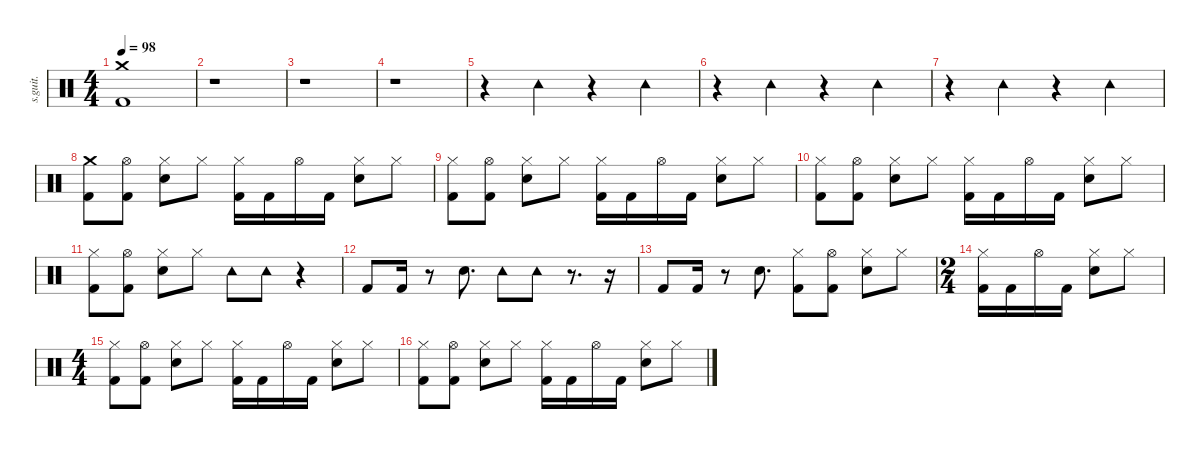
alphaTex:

\defaultSystemsLayout 4
\hideDynamics
\bracketExtendMode nobrackets
\track ("" "s.guit.") {instrument percussion}
\staff {score}
\articulation defaults
\ts (4 4)
\tempo 98
\clef neutral
\ks c
("Crash medium (hit)" "Kick (hit) 2").1{dy ff} |
r.1 |
r.1 |
r.1 |
r.4 "Tambourine (hit)".4 r.4 "Tambourine (hit)".4 |
r.4 "Tambourine (hit)".4 r.4 "Tambourine (hit)".4 |
r.4 "Tambourine (hit)".4 r.4 "Tambourine (hit)".4 |
("Crash medium (hit)" "Kick (hit) 2").8 ("Hi-Hat (open)" "Kick (hit) 2").8 ("Hi-Hat (closed)" "Snare (hit) 2").8 "Hi-Hat (closed)".8 ("Hi-Hat (closed)" "Kick (hit) 2").16 "Kick (hit) 2".16 "Hi-Hat (open)".16 "Kick (hit) 2".16 ("Hi-Hat (closed)" "Snare (hit) 2").8 "Hi-Hat (closed)".8 |
("Hi-Hat (closed)" "Kick (hit) 2").8 ("Hi-Hat (open)" "Kick (hit) 2").8 ("Hi-Hat (closed)" "Snare (hit) 2").8 "Hi-Hat (closed)".8 ("Hi-Hat (closed)" "Kick (hit) 2").16 "Kick (hit) 2".16 "Hi-Hat (open)".16 "Kick (hit) 2".16 ("Hi-Hat (closed)" "Snare (hit) 2").8 "Hi-Hat (closed)".8 |
("Hi-Hat (closed)" "Kick (hit) 2").8 ("Hi-Hat (open)" "Kick (hit) 2").8 ("Hi-Hat (closed)" "Snare (hit) 2").8 "Hi-Hat (closed)".8 ("Hi-Hat (closed)" "Kick (hit) 2").16 "Kick (hit) 2".16 "Hi-Hat (open)".16 "Kick (hit) 2".16 ("Hi-Hat (closed)" "Snare (hit) 2").8 "Hi-Hat (closed)".8 |
("Hi-Hat (closed)" "Kick (hit) 2").8 ("Hi-Hat (open)" "Kick (hit) 2").8 ("Hi-Hat (closed)" "Snare (hit) 2").8 "Hi-Hat (closed)".8 "Tambourine (hit)".8 "Tambourine (hit)".8 r.4 |
"Kick (hit) 2".8 "Kick (hit) 2".16 r.8 "Snare (hit) 2".8{d} "Tambourine (hit)".8 "Tambourine (hit)".8 r.8{d} r.16 |
"Kick (hit) 2".8 "Kick (hit) 2".16 r.8 "Snare (hit) 2".8{d} ("Hi-Hat (closed)" "Kick (hit) 2").8 ("Hi-Hat (open)" "Kick (hit) 2").8 ("Hi-Hat (closed)" "Snare (hit) 2").8 "Hi-Hat (closed)".8 |
\ts (2 4)
\beaming (8 2 2 2 2)
("Hi-Hat (closed)" "Kick (hit) 2").16 "Kick (hit) 2".16 "Hi-Hat (open)".16 "Kick (hit) 2".16 ("Hi-Hat (closed)" "Snare (hit) 2").8 "Hi-Hat (closed)".8 |
\ts (4 4)
\beaming (8 2 2 2 2)
("Hi-Hat (closed)" "Kick (hit) 2").8 ("Hi-Hat (open)" "Kick (hit) 2").8 ("Hi-Hat (closed)" "Snare (hit) 2").8 "Hi-Hat (closed)".8 ("Hi-Hat (closed)" "Kick (hit) 2").16 "Kick (hit) 2".16 "Hi-Hat (open)".16 "Kick (hit) 2".16 ("Hi-Hat (closed)" "Snare (hit) 2").8 "Hi-Hat (closed)".8 |
("Hi-Hat (closed)" "Kick (hit) 2").8 ("Hi-Hat (open)" "Kick (hit) 2").8 ("Hi-Hat (closed)" "Snare (hit) 2").8 "Hi-Hat (closed)".8 ("Hi-Hat (closed)" "Kick (hit) 2").16 "Kick (hit) 2".16 "Hi-Hat (open)".16 "Kick (hit) 2".16 ("Hi-Hat (closed)" "Snare (hit) 2").8 "Hi-Hat (closed)".8
